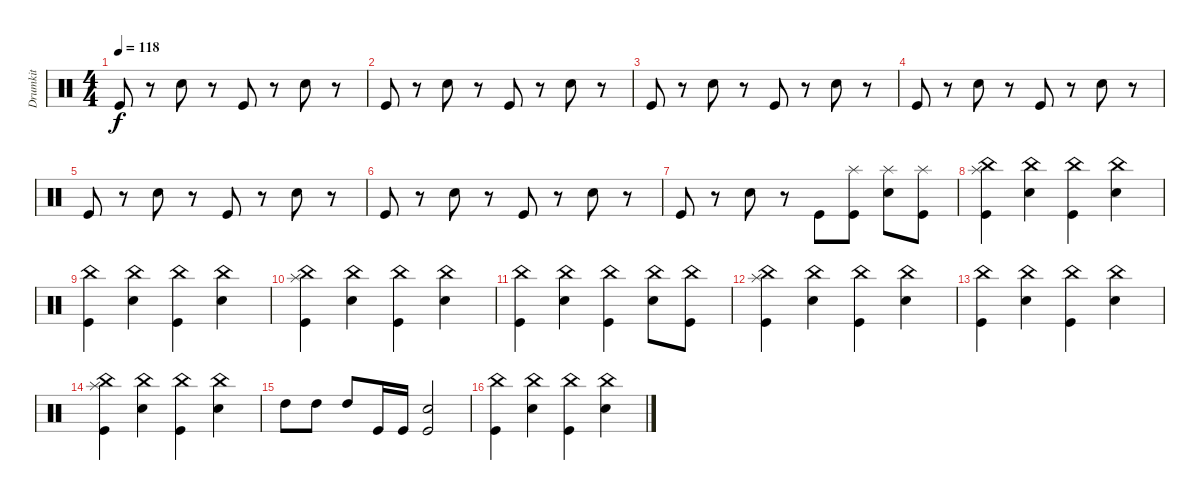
\track ("Drumkit" "Drumkit") {instrument percussion}
\staff {score}
\articulation defaults
\ts (4 4)
\tempo 118
\clef neutral
\ks c "Kick (hit)".8{dy f}
r.8 "Snare (hit) 2".8 r.8 "Kick (hit)".8 r.8 "Snare (hit) 2".8 r.8 |
"Kick (hit)".8 r.8 "Snare (hit) 2".8 r.8 "Kick (hit)".8 r.8 "Snare (hit) 2".8 r.8 |
"Kick (hit)".8 r.8 "Snare (hit) 2".8 r.8 "Kick (hit)".8 r.8 "Snare (hit) 2".8 r.8 |
"Kick (hit)".8 r.8 "Snare (hit) 2".8 r.8 "Kick (hit)".8 r.8 "Snare (hit) 2".8 r.8 |
"Kick (hit)".8 r.8 "Snare (hit) 2".8 r.8 "Kick (hit)".8 r.8 "Snare (hit) 2".8 r.8 |
"Kick (hit)".8 r.8 "Snare (hit) 2".8 r.8 "Kick (hit)".8 r.8 "Snare (hit) 2".8 r.8 |
"Kick (hit)".8 r.8 "Snare (hit) 2".8 r.8 "Kick (hit)".8 ("Kick (hit)" "Splash (hit)").8 ("Snare (hit) 2" "Splash (hit)").8 ("Kick (hit)" "Splash (hit)").8 |
("China (hit)" "Kick (hit)" "Splash (hit)").4 ("China (hit)" "Snare (hit) 2").4 ("China (hit)" "Kick (hit)").4 ("China (hit)" "Snare (hit) 2").4 |
("China (hit)" "Kick (hit)").4 ("China (hit)" "Snare (hit) 2").4 ("China (hit)" "Kick (hit)").4 ("China (hit)" "Snare (hit) 2").4 |
("China (hit)" "Kick (hit)" "Splash (hit)").4 ("China (hit)" "Snare (hit) 2").4 ("China (hit)" "Kick (hit)").4 ("China (hit)" "Snare (hit) 2").4 |
("China (hit)" "Kick (hit)").4 ("China (hit)" "Snare (hit) 2").4 ("China (hit)" "Kick (hit)").4 ("China (hit)" "Snare (hit) 2").8 ("China (hit)" "Kick (hit)").8 |
("China (hit)" "Kick (hit)" "Splash (hit)").4 ("China (hit)" "Snare (hit) 2").4 ("China (hit)" "Kick (hit)").4 ("China (hit)" "Snare (hit) 2").4 |
("China (hit)" "Kick (hit)").4 ("China (hit)" "Snare (hit) 2").4 ("China (hit)" "Kick (hit)").4 ("China (hit)" "Snare (hit) 2").4 |
("China (hit)" "Kick (hit)" "Splash (hit)").4 ("China (hit)" "Snare (hit) 2").4 ("China (hit)" "Kick (hit)").4 ("China (hit)" "Snare (hit) 2").4 |
"High Tom (hit)".8 "High Tom (hit)".8 "High Tom (hit)".8 "Kick (hit)".16 "Kick (hit)".16 ("Kick (hit)" "Snare (hit) 2").2 |
("China (hit)" "Kick (hit)").4 ("China (hit)" "Snare (hit) 2").4 ("China (hit)" "Kick (hit)").4 ("China (hit)" "Snare (hit) 2").4
